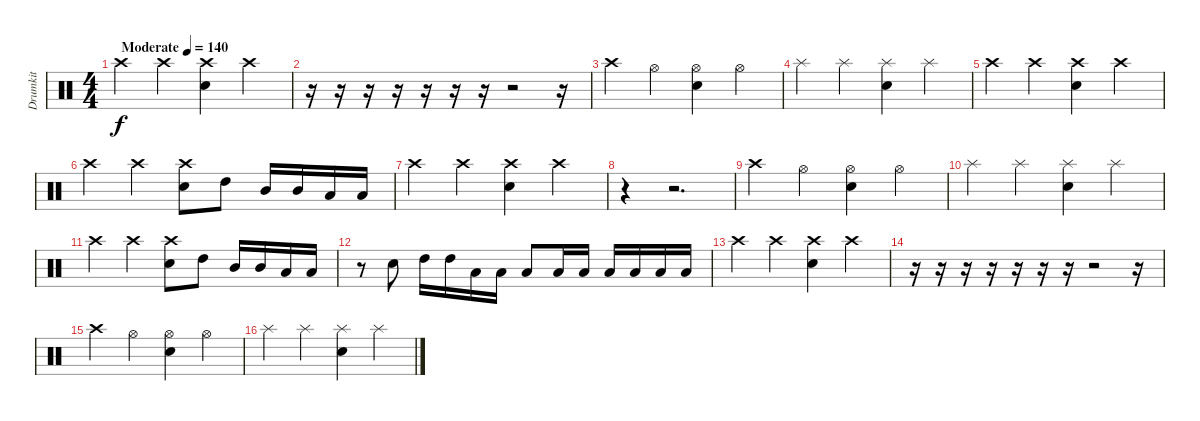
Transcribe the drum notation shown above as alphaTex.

\track ("Drumkit" "Drumkit") {instrument percussion}
\staff {score}
\articulation defaults
\ts (4 4)
\tempo (140 "Moderate")
\clef neutral
\ks c "Crash high (hit)".4{dy f} "Crash high (hit)".4
("Crash high (hit)" "Snare (hit) 2").4 "Crash high (hit)".4 |
r.16 r.16 r.16 r.16 r.16 r.16 r.16 r.2 r.16 |
"Crash high (hit)".4 "Hi-Hat (open)".4 ("Snare (hit) 2" "Hi-Hat (open)").4 "Hi-Hat (open)".4 |
"Splash (hit)".4 "Splash (hit)".4 ("Splash (hit)" "Snare (hit) 2").4 "Splash (hit)".4 |
"Crash high (hit)".4 "Crash high (hit)".4 ("Snare (hit) 2" "Crash high (hit)").4 "Crash high (hit)".4 |
"Crash high (hit)".4 "Crash high (hit)".4 ("Snare (hit) 2" "Crash high (hit)").8 "High Tom (hit)".8 "Mid Tom (hit)".16 "Mid Tom (hit)".16 "Low Floor Tom (hit)".16 "Low Floor Tom (hit)".16 |
"Crash high (hit)".4 "Crash high (hit)".4 ("Crash high (hit)" "Snare (hit) 2").4 "Crash high (hit)".4 |
r.4 r.2{d} |
"Crash high (hit)".4 "Hi-Hat (open)".4 ("Snare (hit) 2" "Hi-Hat (open)").4 "Hi-Hat (open)".4 |
"Splash (hit)".4 "Splash (hit)".4 ("Splash (hit)" "Snare (hit) 2").4 "Splash (hit)".4 |
"Crash high (hit)".4 "Crash high (hit)".4 ("Snare (hit) 2" "Crash high (hit)").8 "High Tom (hit)".8 "Mid Tom (hit)".16 "Mid Tom (hit)".16 "Low Floor Tom (hit)".16 "Low Floor Tom (hit)".16 |
r.8 "Snare (hit) 2".8 "High Tom (hit)".16 "High Tom (hit)".16 "Low Tom (hit)".16 "Low Tom (hit)".16 "Low Tom (hit)".8 "Low Floor Tom (hit)".16 "Low Floor Tom (hit)".16 "Low Floor Tom (hit)".16 "Low Floor Tom (hit)".16 "Low Floor Tom (hit)".16 "Low Floor Tom (hit)".16 |
"Crash high (hit)".4 "Crash high (hit)".4 ("Crash high (hit)" "Snare (hit) 2").4 "Crash high (hit)".4 |
r.16 r.16 r.16 r.16 r.16 r.16 r.16 r.2 r.16 |
"Crash high (hit)".4 "Hi-Hat (open)".4 ("Snare (hit) 2" "Hi-Hat (open)").4 "Hi-Hat (open)".4 |
"Splash (hit)".4 "Splash (hit)".4 ("Splash (hit)" "Snare (hit) 2").4 "Splash (hit)".4
